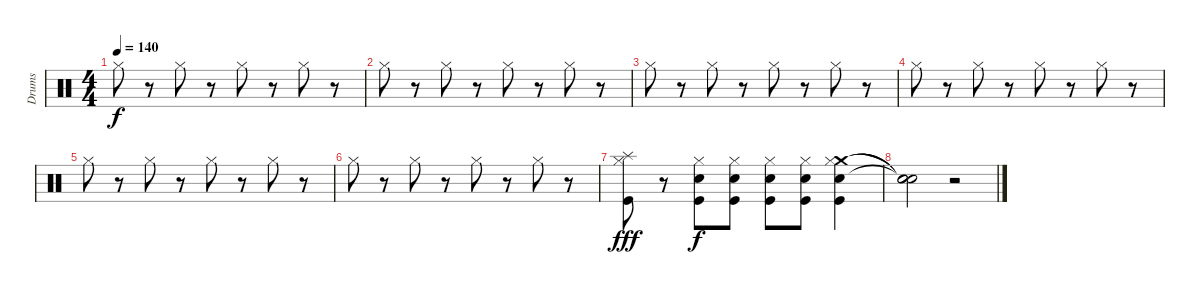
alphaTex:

\track ("Drums" "Drums") {instrument percussion}
\staff {score}
\articulation defaults
\ts (4 4)
\tempo 140
\clef neutral
\ks c "Hi-Hat (closed)".8{dy f}
r.8 "Hi-Hat (closed)".8 r.8 "Hi-Hat (closed)".8 r.8 "Hi-Hat (closed)".8 r.8 |
"Hi-Hat (closed)".8 r.8 "Hi-Hat (closed)".8 r.8 "Hi-Hat (closed)".8 r.8 "Hi-Hat (closed)".8 r.8 |
"Hi-Hat (closed)".8 r.8 "Hi-Hat (closed)".8 r.8 "Hi-Hat (closed)".8 r.8 "Hi-Hat (closed)".8 r.8 |
"Hi-Hat (closed)".8 r.8 "Hi-Hat (closed)".8 r.8 "Hi-Hat (closed)".8 r.8 "Hi-Hat (closed)".8 r.8 |
"Hi-Hat (closed)".8 r.8 "Hi-Hat (closed)".8 r.8 "Hi-Hat (closed)".8 r.8 "Hi-Hat (closed)".8 r.8 |
"Hi-Hat (closed)".8 r.8 "Hi-Hat (closed)".8 r.8 "Hi-Hat (closed)".8 r.8 "Hi-Hat (closed)".8 r.8 |
("Kick (hit)" "Splash (hit)" "Hi-Hat (closed)").8{dy fff} r.8 ("Hi-Hat (closed)" "Snare (hit) 2" "Kick (hit)").8{dy f} ("Hi-Hat (closed)" "Snare (hit) 2" "Kick (hit)").8 ("Hi-Hat (closed)" "Snare (hit) 2" "Kick (hit)").8 ("Hi-Hat (closed)" "Snare (hit) 2" "Kick (hit)").8 ("Crash medium (hit)" "Hi-Hat (closed)" "Snare (hit) 2" "Kick (hit)").4 |
("Snare (hit)"{t} "Snare (hit)"{t} "Snare (hit)"{t}).2 r.2
